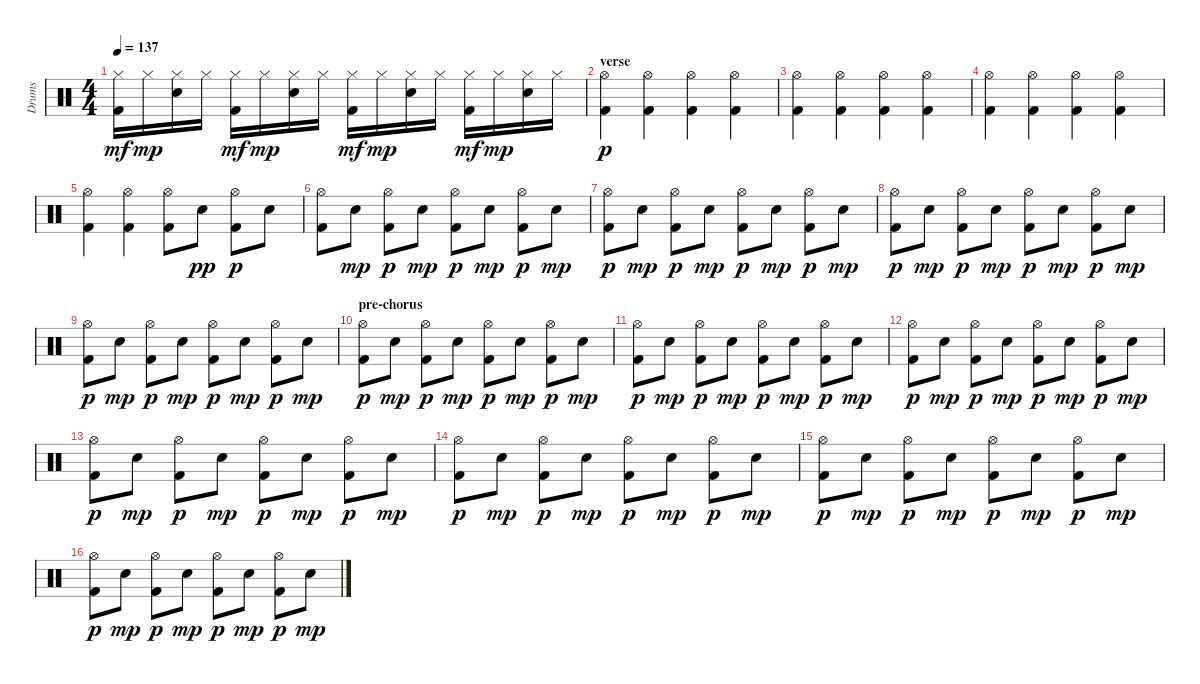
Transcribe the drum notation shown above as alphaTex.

\track ("Drums" "Drums") {instrument percussion}
\staff {score}
\articulation defaults
\ts (4 4)
\tempo 137
\clef neutral
\ks c
("Hi-Hat (closed)" "Kick (hit) 2").16{dy mf} "Hi-Hat (closed)".16{dy mp} ("Hi-Hat (closed)" "Snare (hit) 2").16 "Hi-Hat (closed)".16 ("Hi-Hat (closed)" "Kick (hit) 2").16{dy mf} "Hi-Hat (closed)".16{dy mp} ("Hi-Hat (closed)" "Snare (hit) 2").16 "Hi-Hat (closed)".16 ("Hi-Hat (closed)" "Kick (hit) 2").16{dy mf} "Hi-Hat (closed)".16{dy mp} ("Hi-Hat (closed)" "Snare (hit) 2").16 "Hi-Hat (closed)".16 ("Hi-Hat (closed)" "Kick (hit) 2").16{dy mf} "Hi-Hat (closed)".16{dy mp} ("Hi-Hat (closed)" "Snare (hit) 2").16 "Hi-Hat (closed)".16 |
\section ("" "verse")
("Hi-Hat (open)" "Kick (hit) 2").4{dy p} ("Hi-Hat (open)" "Kick (hit) 2").4 ("Hi-Hat (open)" "Kick (hit) 2").4 ("Hi-Hat (open)" "Kick (hit) 2").4 |
("Hi-Hat (open)" "Kick (hit) 2").4 ("Hi-Hat (open)" "Kick (hit) 2").4 ("Hi-Hat (open)" "Kick (hit) 2").4 ("Hi-Hat (open)" "Kick (hit) 2").4 |
("Hi-Hat (open)" "Kick (hit) 2").4 ("Hi-Hat (open)" "Kick (hit) 2").4 ("Hi-Hat (open)" "Kick (hit) 2").4 ("Hi-Hat (open)" "Kick (hit) 2").4 |
("Hi-Hat (open)" "Kick (hit) 2").4 ("Hi-Hat (open)" "Kick (hit) 2").4 ("Hi-Hat (open)" "Kick (hit) 2").8 "Snare (hit) 2".8{dy pp} ("Hi-Hat (open)" "Kick (hit) 2").8{dy p} "Snare (hit) 2".8 |
("Hi-Hat (open)" "Kick (hit) 2").8 "Snare (hit) 2".8{dy mp} ("Hi-Hat (open)" "Kick (hit) 2").8{dy p} "Snare (hit) 2".8{dy mp} ("Hi-Hat (open)" "Kick (hit) 2").8{dy p} "Snare (hit) 2".8{dy mp} ("Hi-Hat (open)" "Kick (hit) 2").8{dy p} "Snare (hit) 2".8{dy mp} |
("Hi-Hat (open)" "Kick (hit) 2").8{dy p} "Snare (hit) 2".8{dy mp} ("Hi-Hat (open)" "Kick (hit) 2").8{dy p} "Snare (hit) 2".8{dy mp} ("Hi-Hat (open)" "Kick (hit) 2").8{dy p} "Snare (hit) 2".8{dy mp} ("Hi-Hat (open)" "Kick (hit) 2").8{dy p} "Snare (hit) 2".8{dy mp} |
("Hi-Hat (open)" "Kick (hit) 2").8{dy p} "Snare (hit) 2".8{dy mp} ("Hi-Hat (open)" "Kick (hit) 2").8{dy p} "Snare (hit) 2".8{dy mp} ("Hi-Hat (open)" "Kick (hit) 2").8{dy p} "Snare (hit) 2".8{dy mp} ("Hi-Hat (open)" "Kick (hit) 2").8{dy p} "Snare (hit) 2".8{dy mp} |
("Hi-Hat (open)" "Kick (hit) 2").8{dy p} "Snare (hit) 2".8{dy mp} ("Hi-Hat (open)" "Kick (hit) 2").8{dy p} "Snare (hit) 2".8{dy mp} ("Hi-Hat (open)" "Kick (hit) 2").8{dy p} "Snare (hit) 2".8{dy mp} ("Hi-Hat (open)" "Kick (hit) 2").8{dy p} "Snare (hit) 2".8{dy mp} |
\section ("" "pre-chorus")
("Hi-Hat (open)" "Kick (hit) 2").8{dy p} "Snare (hit) 2".8{dy mp} ("Hi-Hat (open)" "Kick (hit) 2").8{dy p} "Snare (hit) 2".8{dy mp} ("Hi-Hat (open)" "Kick (hit) 2").8{dy p} "Snare (hit) 2".8{dy mp} ("Hi-Hat (open)" "Kick (hit) 2").8{dy p} "Snare (hit) 2".8{dy mp} |
("Hi-Hat (open)" "Kick (hit) 2").8{dy p} "Snare (hit) 2".8{dy mp} ("Hi-Hat (open)" "Kick (hit) 2").8{dy p} "Snare (hit) 2".8{dy mp} ("Hi-Hat (open)" "Kick (hit) 2").8{dy p} "Snare (hit) 2".8{dy mp} ("Hi-Hat (open)" "Kick (hit) 2").8{dy p} "Snare (hit) 2".8{dy mp} |
("Hi-Hat (open)" "Kick (hit) 2").8{dy p} "Snare (hit) 2".8{dy mp} ("Hi-Hat (open)" "Kick (hit) 2").8{dy p} "Snare (hit) 2".8{dy mp} ("Hi-Hat (open)" "Kick (hit) 2").8{dy p} "Snare (hit) 2".8{dy mp} ("Hi-Hat (open)" "Kick (hit) 2").8{dy p} "Snare (hit) 2".8{dy mp} |
("Hi-Hat (open)" "Kick (hit) 2").8{dy p} "Snare (hit) 2".8{dy mp} ("Hi-Hat (open)" "Kick (hit) 2").8{dy p} "Snare (hit) 2".8{dy mp} ("Hi-Hat (open)" "Kick (hit) 2").8{dy p} "Snare (hit) 2".8{dy mp} ("Hi-Hat (open)" "Kick (hit) 2").8{dy p} "Snare (hit) 2".8{dy mp} |
("Hi-Hat (open)" "Kick (hit) 2").8{dy p} "Snare (hit) 2".8{dy mp} ("Hi-Hat (open)" "Kick (hit) 2").8{dy p} "Snare (hit) 2".8{dy mp} ("Hi-Hat (open)" "Kick (hit) 2").8{dy p} "Snare (hit) 2".8{dy mp} ("Hi-Hat (open)" "Kick (hit) 2").8{dy p} "Snare (hit) 2".8{dy mp} |
("Hi-Hat (open)" "Kick (hit) 2").8{dy p} "Snare (hit) 2".8{dy mp} ("Hi-Hat (open)" "Kick (hit) 2").8{dy p} "Snare (hit) 2".8{dy mp} ("Hi-Hat (open)" "Kick (hit) 2").8{dy p} "Snare (hit) 2".8{dy mp} ("Hi-Hat (open)" "Kick (hit) 2").8{dy p} "Snare (hit) 2".8{dy mp} |
("Hi-Hat (open)" "Kick (hit) 2").8{dy p} "Snare (hit) 2".8{dy mp} ("Hi-Hat (open)" "Kick (hit) 2").8{dy p} "Snare (hit) 2".8{dy mp} ("Hi-Hat (open)" "Kick (hit) 2").8{dy p} "Snare (hit) 2".8{dy mp} ("Hi-Hat (open)" "Kick (hit) 2").8{dy p} "Snare (hit) 2".8{dy mp}
